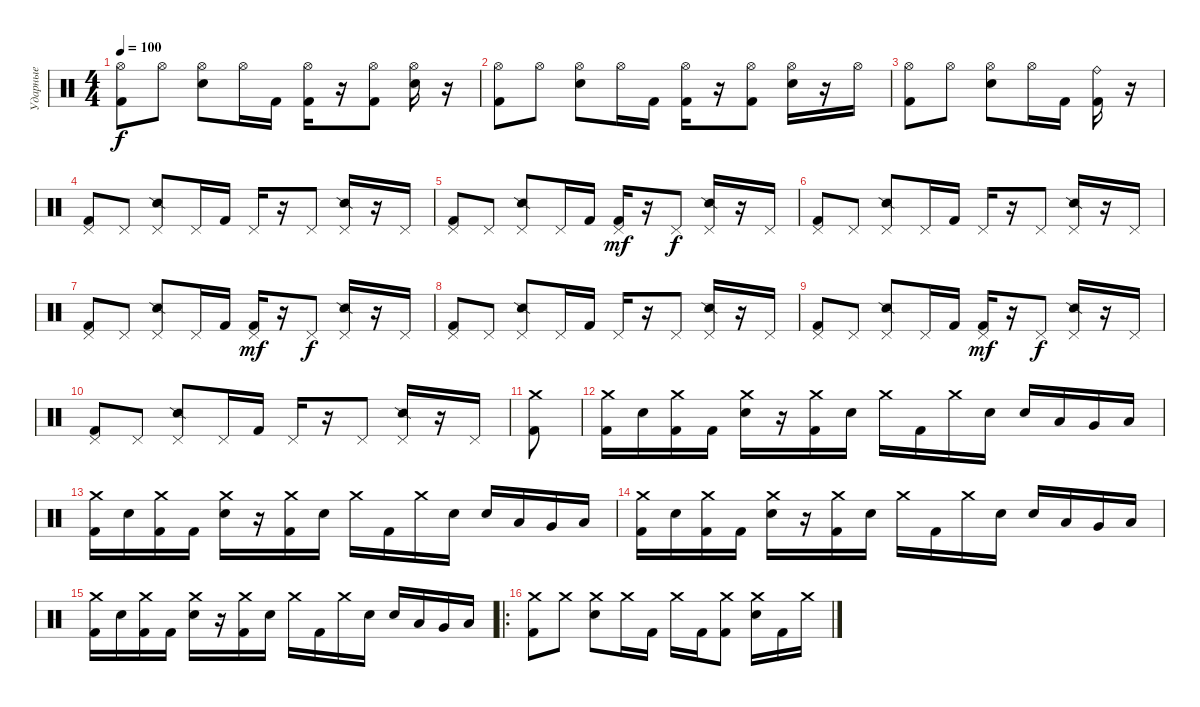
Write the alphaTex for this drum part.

\track ("Ударные" "Ударные") {instrument percussion}
\staff {score}
\articulation defaults
\ts (4 4)
\tempo 100
\clef neutral
\ks c
("Hi-Hat (open)" "Kick (hit) 2").8{dy f} "Hi-Hat (open)".8 ("Hi-Hat (open)" "Electric Snare (hit)").8 "Hi-Hat (open)".16 "Kick (hit) 2".16 ("Hi-Hat (open)" "Kick (hit) 2").16 r.16 ("Hi-Hat (open)" "Kick (hit) 2").8 ("Hi-Hat (open)" "Electric Snare (hit)").16 r.16 |
("Hi-Hat (open)" "Kick (hit) 2").8 "Hi-Hat (open)".8 ("Hi-Hat (open)" "Electric Snare (hit)").8 "Hi-Hat (open)".16 "Kick (hit) 2".16 ("Hi-Hat (open)" "Kick (hit) 2").16 r.16 ("Hi-Hat (open)" "Kick (hit) 2").8 ("Hi-Hat (open)" "Electric Snare (hit)").16 r.16 "Hi-Hat (open)".16 |
("Hi-Hat (open)" "Kick (hit) 2").8 "Hi-Hat (open)".8 ("Hi-Hat (open)" "Electric Snare (hit)").8 "Hi-Hat (open)".16 "Kick (hit) 2".16 ("Ride (bell)" "Kick (hit) 2").16 r.16 |
("Pedal Hi-Hat (hit)" "Kick (hit) 2").8 "Pedal Hi-Hat (hit)".8 ("Pedal Hi-Hat (hit)" "Snare (side stick) 2").8 "Pedal Hi-Hat (hit)".16 "Kick (hit) 2".16 "Pedal Hi-Hat (hit)".16 r.16 "Pedal Hi-Hat (hit)".8 ("Pedal Hi-Hat (hit)" "Snare (side stick) 2").16 r.16 "Pedal Hi-Hat (hit)".16 |
("Pedal Hi-Hat (hit)" "Kick (hit) 2").8 "Pedal Hi-Hat (hit)".8 ("Pedal Hi-Hat (hit)" "Snare (side stick) 2").8 "Pedal Hi-Hat (hit)".16 "Kick (hit) 2".16 ("Pedal Hi-Hat (hit)" "Kick (hit) 2").16{dy mf} r.16 "Pedal Hi-Hat (hit)".8{dy f} ("Pedal Hi-Hat (hit)" "Snare (side stick) 2").16 r.16 "Pedal Hi-Hat (hit)".16 |
("Pedal Hi-Hat (hit)" "Kick (hit) 2").8 "Pedal Hi-Hat (hit)".8 ("Pedal Hi-Hat (hit)" "Snare (side stick) 2").8 "Pedal Hi-Hat (hit)".16 "Kick (hit) 2".16 "Pedal Hi-Hat (hit)".16 r.16 "Pedal Hi-Hat (hit)".8 ("Pedal Hi-Hat (hit)" "Snare (side stick) 2").16 r.16 "Pedal Hi-Hat (hit)".16 |
("Pedal Hi-Hat (hit)" "Kick (hit) 2").8 "Pedal Hi-Hat (hit)".8 ("Pedal Hi-Hat (hit)" "Snare (side stick) 2").8 "Pedal Hi-Hat (hit)".16 "Kick (hit) 2".16 ("Pedal Hi-Hat (hit)" "Kick (hit) 2").16{dy mf} r.16 "Pedal Hi-Hat (hit)".8{dy f} ("Pedal Hi-Hat (hit)" "Snare (side stick) 2").16 r.16 "Pedal Hi-Hat (hit)".16 |
("Pedal Hi-Hat (hit)" "Kick (hit) 2").8 "Pedal Hi-Hat (hit)".8 ("Pedal Hi-Hat (hit)" "Snare (side stick) 2").8 "Pedal Hi-Hat (hit)".16 "Kick (hit) 2".16 "Pedal Hi-Hat (hit)".16 r.16 "Pedal Hi-Hat (hit)".8 ("Pedal Hi-Hat (hit)" "Snare (side stick) 2").16 r.16 "Pedal Hi-Hat (hit)".16 |
("Pedal Hi-Hat (hit)" "Kick (hit) 2").8 "Pedal Hi-Hat (hit)".8 ("Pedal Hi-Hat (hit)" "Snare (side stick) 2").8 "Pedal Hi-Hat (hit)".16 "Kick (hit) 2".16 ("Pedal Hi-Hat (hit)" "Kick (hit) 2").16{dy mf} r.16 "Pedal Hi-Hat (hit)".8{dy f} ("Pedal Hi-Hat (hit)" "Snare (side stick) 2").16 r.16 "Pedal Hi-Hat (hit)".16 |
("Pedal Hi-Hat (hit)" "Kick (hit) 2").8 "Pedal Hi-Hat (hit)".8 ("Pedal Hi-Hat (hit)" "Snare (side stick) 2").8 "Pedal Hi-Hat (hit)".16 "Kick (hit) 2".16 "Pedal Hi-Hat (hit)".16 r.16 "Pedal Hi-Hat (hit)".8 ("Pedal Hi-Hat (hit)" "Snare (side stick) 2").16 r.16 "Pedal Hi-Hat (hit)".16 |
("Crash medium (hit)" "Kick (hit) 2").8 |
("Crash medium (hit)" "Kick (hit) 2").16 "Electric Snare (hit)".16 ("Crash medium (hit)" "Kick (hit) 2").16 "Kick (hit) 2".16 ("Crash medium (hit)" "Electric Snare (hit)").16 r.16 ("Crash medium (hit)" "Kick (hit) 2").16 "Electric Snare (hit)".16 "Crash medium (hit)".16 "Kick (hit) 2".16 "Crash medium (hit)".16 "Electric Snare (hit)".16 "Electric Snare (hit)".16 "Low Floor Tom (hit)".16 "Very Low Tom (hit)".16 "Low Tom (hit)".16 |
("Crash medium (hit)" "Kick (hit) 2").16 "Electric Snare (hit)".16 ("Crash medium (hit)" "Kick (hit) 2").16 "Kick (hit) 2".16 ("Crash medium (hit)" "Electric Snare (hit)").16 r.16 ("Crash medium (hit)" "Kick (hit) 2").16 "Electric Snare (hit)".16 "Crash medium (hit)".16 "Kick (hit) 2".16 "Crash medium (hit)".16 "Electric Snare (hit)".16 "Electric Snare (hit)".16 "Low Floor Tom (hit)".16 "Very Low Tom (hit)".16 "Low Tom (hit)".16 |
("Crash medium (hit)" "Kick (hit) 2").16 "Electric Snare (hit)".16 ("Crash medium (hit)" "Kick (hit) 2").16 "Kick (hit) 2".16 ("Crash medium (hit)" "Electric Snare (hit)").16 r.16 ("Crash medium (hit)" "Kick (hit) 2").16 "Electric Snare (hit)".16 "Crash medium (hit)".16 "Kick (hit) 2".16 "Crash medium (hit)".16 "Electric Snare (hit)".16 "Electric Snare (hit)".16 "Low Floor Tom (hit)".16 "Very Low Tom (hit)".16 "Low Tom (hit)".16 |
("Crash medium (hit)" "Kick (hit) 2").16 "Electric Snare (hit)".16 ("Crash medium (hit)" "Kick (hit) 2").16 "Kick (hit) 2".16 ("Crash medium (hit)" "Electric Snare (hit)").16 r.16 ("Crash medium (hit)" "Kick (hit) 2").16 "Electric Snare (hit)".16 "Crash medium (hit)".16 "Kick (hit) 2".16 "Crash medium (hit)".16 "Electric Snare (hit)".16 "Electric Snare (hit)".16 "Low Floor Tom (hit)".16 "Very Low Tom (hit)".16 "Low Tom (hit)".16 |
\ro
("Crash medium (hit)" "Kick (hit) 2").8 "Crash medium (hit)".8 ("Crash medium (hit)" "Electric Snare (hit)").8 "Crash medium (hit)".16 "Kick (hit) 2".16 "Crash medium (hit)".16 "Kick (hit) 2".16 ("Crash medium (hit)" "Kick (hit) 2").8 ("Crash medium (hit)" "Electric Snare (hit)").16 "Kick (hit) 2".16 "Crash medium (hit)".16
